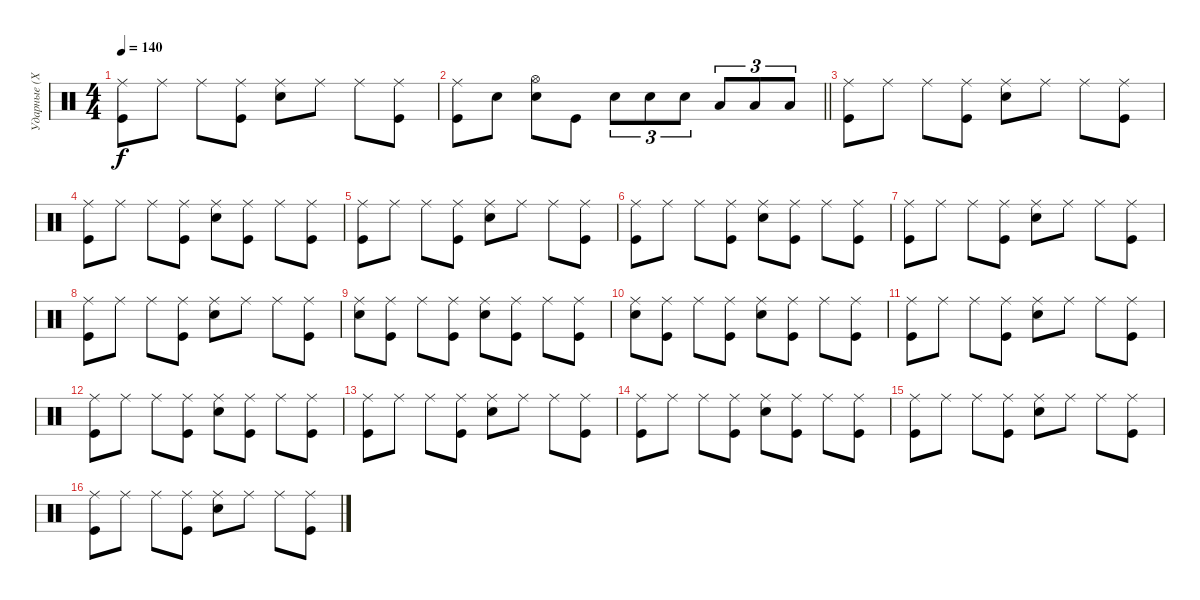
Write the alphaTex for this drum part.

\track ("Ударные (Хеллхаммер)" "Ударные (Х") {instrument percussion}
\staff {score}
\articulation defaults
\ts (4 4)
\tempo 140
\clef neutral
\ks c
("Ride (middle)" "Kick (hit)").8{dy f} "Ride (middle)".8 "Ride (middle)".8 ("Ride (middle)" "Kick (hit)").8 ("Ride (middle)" "Electric Snare (hit)").8 "Ride (middle)".8 "Ride (middle)".8 ("Ride (middle)" "Kick (hit)").8 |
\barLineRight lightlight
("Ride (middle)" "Kick (hit)").8 "Electric Snare (hit)".8 ("Electric Snare (hit)" "Hi-Hat (open)").8 "Kick (hit)".8 "Electric Snare (hit)".8{tu (3 2)} "Electric Snare (hit)".8{tu (3 2)} "Electric Snare (hit)".8{tu (3 2)} "Low Tom (hit)".8{tu (3 2)} "Low Tom (hit)".8{tu (3 2)} "Low Tom (hit)".8{tu (3 2)} |
("Ride (middle)" "Kick (hit)").8 "Ride (middle)".8 "Ride (middle)".8 ("Ride (middle)" "Kick (hit)").8 ("Ride (middle)" "Electric Snare (hit)").8 "Ride (middle)".8 "Ride (middle)".8 ("Ride (middle)" "Kick (hit)").8 |
("Ride (middle)" "Kick (hit)").8 "Ride (middle)".8 "Ride (middle)".8 ("Ride (middle)" "Kick (hit)").8 ("Ride (middle)" "Electric Snare (hit)").8 ("Ride (middle)" "Kick (hit)").8 "Ride (middle)".8 ("Ride (middle)" "Kick (hit)").8 |
("Ride (middle)" "Kick (hit)").8 "Ride (middle)".8 "Ride (middle)".8 ("Ride (middle)" "Kick (hit)").8 ("Ride (middle)" "Electric Snare (hit)").8 "Ride (middle)".8 "Ride (middle)".8 ("Ride (middle)" "Kick (hit)").8 |
("Ride (middle)" "Kick (hit)").8 "Ride (middle)".8 "Ride (middle)".8 ("Ride (middle)" "Kick (hit)").8 ("Ride (middle)" "Electric Snare (hit)").8 ("Ride (middle)" "Kick (hit)").8 "Ride (middle)".8 ("Ride (middle)" "Kick (hit)").8 |
("Ride (middle)" "Kick (hit)").8 "Ride (middle)".8 "Ride (middle)".8 ("Ride (middle)" "Kick (hit)").8 ("Ride (middle)" "Electric Snare (hit)").8 "Ride (middle)".8 "Ride (middle)".8 ("Ride (middle)" "Kick (hit)").8 |
("Ride (middle)" "Kick (hit)").8 "Ride (middle)".8 "Ride (middle)".8 ("Ride (middle)" "Kick (hit)").8 ("Ride (middle)" "Electric Snare (hit)").8 "Ride (middle)".8 "Ride (middle)".8 ("Ride (middle)" "Kick (hit)").8 |
("Ride (middle)" "Electric Snare (hit)").8 ("Ride (middle)" "Kick (hit)").8 "Ride (middle)".8 ("Ride (middle)" "Kick (hit)").8 ("Ride (middle)" "Electric Snare (hit)").8 ("Ride (middle)" "Kick (hit)").8 "Ride (middle)".8 ("Ride (middle)" "Kick (hit)").8 |
("Ride (middle)" "Electric Snare (hit)").8 ("Ride (middle)" "Kick (hit)").8 "Ride (middle)".8 ("Ride (middle)" "Kick (hit)").8 ("Ride (middle)" "Electric Snare (hit)").8 ("Ride (middle)" "Kick (hit)").8 "Ride (middle)".8 ("Ride (middle)" "Kick (hit)").8 |
("Ride (middle)" "Kick (hit)").8 "Ride (middle)".8 "Ride (middle)".8 ("Ride (middle)" "Kick (hit)").8 ("Ride (middle)" "Electric Snare (hit)").8 "Ride (middle)".8 "Ride (middle)".8 ("Ride (middle)" "Kick (hit)").8 |
("Ride (middle)" "Kick (hit)").8 "Ride (middle)".8 "Ride (middle)".8 ("Ride (middle)" "Kick (hit)").8 ("Ride (middle)" "Electric Snare (hit)").8 ("Ride (middle)" "Kick (hit)").8 "Ride (middle)".8 ("Ride (middle)" "Kick (hit)").8 |
("Ride (middle)" "Kick (hit)").8 "Ride (middle)".8 "Ride (middle)".8 ("Ride (middle)" "Kick (hit)").8 ("Ride (middle)" "Electric Snare (hit)").8 "Ride (middle)".8 "Ride (middle)".8 ("Ride (middle)" "Kick (hit)").8 |
("Ride (middle)" "Kick (hit)").8 "Ride (middle)".8 "Ride (middle)".8 ("Ride (middle)" "Kick (hit)").8 ("Ride (middle)" "Electric Snare (hit)").8 ("Ride (middle)" "Kick (hit)").8 "Ride (middle)".8 ("Ride (middle)" "Kick (hit)").8 |
("Ride (middle)" "Kick (hit)").8 "Ride (middle)".8 "Ride (middle)".8 ("Ride (middle)" "Kick (hit)").8 ("Ride (middle)" "Electric Snare (hit)").8 "Ride (middle)".8 "Ride (middle)".8 ("Ride (middle)" "Kick (hit)").8 |
("Ride (middle)" "Kick (hit)").8 "Ride (middle)".8 "Ride (middle)".8 ("Ride (middle)" "Kick (hit)").8 ("Ride (middle)" "Electric Snare (hit)").8 "Ride (middle)".8 "Ride (middle)".8 ("Ride (middle)" "Kick (hit)").8
